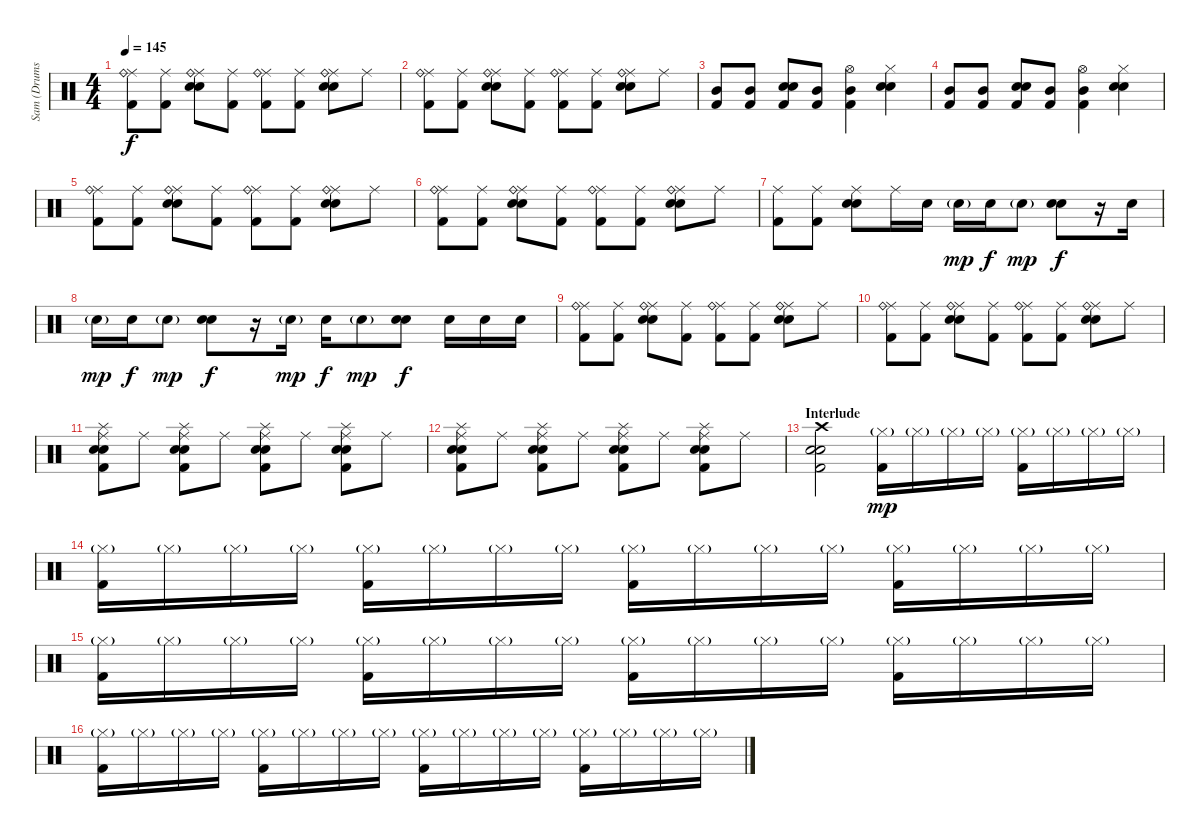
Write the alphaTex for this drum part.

\track ("Sam (Drums)" "Sam (Drums") {instrument percussion}
\staff {score}
\articulation defaults
\ts (4 4)
\tempo 145
\clef neutral
\ks c
("Ride (middle)" "Ride (bell)" "Kick (hit) 2").8{dy f} ("Ride (middle)" "Kick (hit) 2").8 ("Ride (middle)" "Ride (bell)" "Electric Snare (hit)" "Snare (hit) 2").8 ("Ride (middle)" "Kick (hit) 2").8 ("Ride (middle)" "Ride (bell)" "Kick (hit) 2").8 ("Ride (middle)" "Kick (hit) 2").8 ("Ride (middle)" "Ride (bell)" "Electric Snare (hit)" "Snare (hit) 2").8 "Ride (middle)".8 |
("Ride (middle)" "Ride (bell)" "Kick (hit) 2").8 ("Ride (middle)" "Kick (hit) 2").8 ("Ride (middle)" "Ride (bell)" "Electric Snare (hit)" "Snare (hit) 2").8 ("Ride (middle)" "Kick (hit) 2").8 ("Ride (middle)" "Ride (bell)" "Kick (hit) 2").8 ("Ride (middle)" "Kick (hit) 2").8 ("Ride (middle)" "Ride (bell)" "Electric Snare (hit)" "Snare (hit) 2").8 "Ride (middle)".8 |
("Mid Tom (hit)" "Kick (hit) 2").8 ("Mid Tom (hit)" "Kick (hit) 2").8 ("Electric Snare (hit)" "Snare (hit) 2" "Kick (hit) 2").8 ("Mid Tom (hit)" "Kick (hit) 2").8 ("Hi-Hat (open)" "Mid Tom (hit)" "Kick (hit) 2").4 ("Hi-Hat (closed)" "Electric Snare (hit)" "Snare (hit) 2").4 |
("Mid Tom (hit)" "Kick (hit) 2").8 ("Mid Tom (hit)" "Kick (hit) 2").8 ("Electric Snare (hit)" "Snare (hit) 2" "Kick (hit) 2").8 ("Mid Tom (hit)" "Kick (hit) 2").8 ("Hi-Hat (open)" "Mid Tom (hit)" "Kick (hit) 2").4 ("Hi-Hat (closed)" "Electric Snare (hit)" "Snare (hit) 2").4 |
("Ride (middle)" "Ride (bell)" "Kick (hit) 2").8 ("Ride (middle)" "Kick (hit) 2").8 ("Ride (middle)" "Ride (bell)" "Electric Snare (hit)" "Snare (hit) 2").8 ("Ride (middle)" "Kick (hit) 2").8 ("Ride (middle)" "Ride (bell)" "Kick (hit) 2").8 ("Ride (middle)" "Kick (hit) 2").8 ("Ride (middle)" "Ride (bell)" "Electric Snare (hit)" "Snare (hit) 2").8 "Ride (middle)".8 |
("Ride (middle)" "Ride (bell)" "Kick (hit) 2").8 ("Ride (middle)" "Kick (hit) 2").8 ("Ride (middle)" "Ride (bell)" "Electric Snare (hit)" "Snare (hit) 2").8 ("Ride (middle)" "Kick (hit) 2").8 ("Ride (middle)" "Ride (bell)" "Kick (hit) 2").8 ("Ride (middle)" "Kick (hit) 2").8 ("Ride (middle)" "Ride (bell)" "Electric Snare (hit)" "Snare (hit) 2").8 "Ride (middle)".8 |
("Ride (middle)" "Kick (hit) 2").8 ("Ride (middle)" "Kick (hit) 2").8 ("Ride (middle)" "Electric Snare (hit)" "Snare (hit) 2").8 "Ride (middle)".16 "Snare (hit) 2".16 "Snare (hit) 2"{g}.16{dy mp} "Snare (hit) 2".16{dy f} "Snare (hit) 2"{g}.8{dy mp} ("Snare (hit) 2" "Electric Snare (hit)").8{dy f} r.16 "Snare (hit) 2".16 |
"Snare (hit) 2"{g}.16{dy mp} "Snare (hit) 2".16{dy f} "Snare (hit) 2"{g}.8{dy mp} ("Electric Snare (hit)" "Snare (hit) 2").8{dy f} r.16 "Snare (hit) 2"{g}.16{dy mp} "Snare (hit) 2".16{dy f} "Snare (hit) 2"{g}.8{dy mp} ("Electric Snare (hit)" "Snare (hit) 2").8{dy f} "Snare (hit) 2".16 "Snare (hit) 2".16 "Snare (hit) 2".16 |
("Ride (middle)" "Ride (bell)" "Kick (hit) 2").8 ("Ride (middle)" "Kick (hit) 2").8 ("Ride (middle)" "Ride (bell)" "Electric Snare (hit)" "Snare (hit) 2").8 ("Ride (middle)" "Kick (hit) 2").8 ("Ride (middle)" "Ride (bell)" "Kick (hit) 2").8 ("Ride (middle)" "Kick (hit) 2").8 ("Ride (middle)" "Ride (bell)" "Electric Snare (hit)" "Snare (hit) 2").8 "Ride (middle)".8 |
("Ride (middle)" "Ride (bell)" "Kick (hit) 2").8 ("Ride (middle)" "Kick (hit) 2").8 ("Ride (middle)" "Ride (bell)" "Electric Snare (hit)" "Snare (hit) 2").8 ("Ride (middle)" "Kick (hit) 2").8 ("Ride (middle)" "Ride (bell)" "Kick (hit) 2").8 ("Ride (middle)" "Kick (hit) 2").8 ("Ride (middle)" "Ride (bell)" "Electric Snare (hit)" "Snare (hit) 2").8 "Ride (middle)".8 |
("Ride (middle)" "Splash (hit)" "Electric Snare (hit)" "Snare (hit) 2" "Kick (hit) 2").8 "Ride (middle)".8 ("Ride (middle)" "Splash (hit)" "Electric Snare (hit)" "Snare (hit) 2" "Kick (hit) 2").8 "Ride (middle)".8 ("Ride (middle)" "Splash (hit)" "Electric Snare (hit)" "Snare (hit) 2" "Kick (hit) 2").8 "Ride (middle)".8 ("Ride (middle)" "Splash (hit)" "Electric Snare (hit)" "Snare (hit) 2" "Kick (hit) 2").8 "Ride (middle)".8 |
("Ride (middle)" "Splash (hit)" "Electric Snare (hit)" "Snare (hit) 2" "Kick (hit) 2").8 "Ride (middle)".8 ("Ride (middle)" "Splash (hit)" "Electric Snare (hit)" "Snare (hit) 2" "Kick (hit) 2").8 "Ride (middle)".8 ("Ride (middle)" "Splash (hit)" "Electric Snare (hit)" "Snare (hit) 2" "Kick (hit) 2").8 "Ride (middle)".8 ("Ride (middle)" "Splash (hit)" "Electric Snare (hit)" "Snare (hit) 2" "Kick (hit) 2").8 "Ride (middle)".8 |
\section ("" "Interlude")
("Crash high (hit)" "Electric Snare (hit)" "Snare (hit) 2" "Kick (hit) 2").2 ("Hi-Hat (closed)"{g} "Kick (hit) 2").16{dy mp} "Hi-Hat (closed)"{g}.16 "Hi-Hat (closed)"{g}.16 "Hi-Hat (closed)"{g}.16 ("Hi-Hat (closed)"{g} "Kick (hit) 2").16 "Hi-Hat (closed)"{g}.16 "Hi-Hat (closed)"{g}.16 "Hi-Hat (closed)"{g}.16 |
("Hi-Hat (closed)"{g} "Kick (hit) 2").16 "Hi-Hat (closed)"{g}.16 "Hi-Hat (closed)"{g}.16 "Hi-Hat (closed)"{g}.16 ("Hi-Hat (closed)"{g} "Kick (hit) 2").16 "Hi-Hat (closed)"{g}.16 "Hi-Hat (closed)"{g}.16 "Hi-Hat (closed)"{g}.16 ("Hi-Hat (closed)"{g} "Kick (hit) 2").16 "Hi-Hat (closed)"{g}.16 "Hi-Hat (closed)"{g}.16 "Hi-Hat (closed)"{g}.16 ("Hi-Hat (closed)"{g} "Kick (hit) 2").16 "Hi-Hat (closed)"{g}.16 "Hi-Hat (closed)"{g}.16 "Hi-Hat (closed)"{g}.16 |
("Hi-Hat (closed)"{g} "Kick (hit) 2").16 "Hi-Hat (closed)"{g}.16 "Hi-Hat (closed)"{g}.16 "Hi-Hat (closed)"{g}.16 ("Hi-Hat (closed)"{g} "Kick (hit) 2").16 "Hi-Hat (closed)"{g}.16 "Hi-Hat (closed)"{g}.16 "Hi-Hat (closed)"{g}.16 ("Hi-Hat (closed)"{g} "Kick (hit) 2").16 "Hi-Hat (closed)"{g}.16 "Hi-Hat (closed)"{g}.16 "Hi-Hat (closed)"{g}.16 ("Hi-Hat (closed)"{g} "Kick (hit) 2").16 "Hi-Hat (closed)"{g}.16 "Hi-Hat (closed)"{g}.16 "Hi-Hat (closed)"{g}.16 |
("Hi-Hat (closed)"{g} "Kick (hit) 2").16 "Hi-Hat (closed)"{g}.16 "Hi-Hat (closed)"{g}.16 "Hi-Hat (closed)"{g}.16 ("Hi-Hat (closed)"{g} "Kick (hit) 2").16 "Hi-Hat (closed)"{g}.16 "Hi-Hat (closed)"{g}.16 "Hi-Hat (closed)"{g}.16 ("Hi-Hat (closed)"{g} "Kick (hit) 2").16 "Hi-Hat (closed)"{g}.16 "Hi-Hat (closed)"{g}.16 "Hi-Hat (closed)"{g}.16 ("Hi-Hat (closed)"{g} "Kick (hit) 2").16 "Hi-Hat (closed)"{g}.16 "Hi-Hat (closed)"{g}.16 "Hi-Hat (closed)"{g}.16
